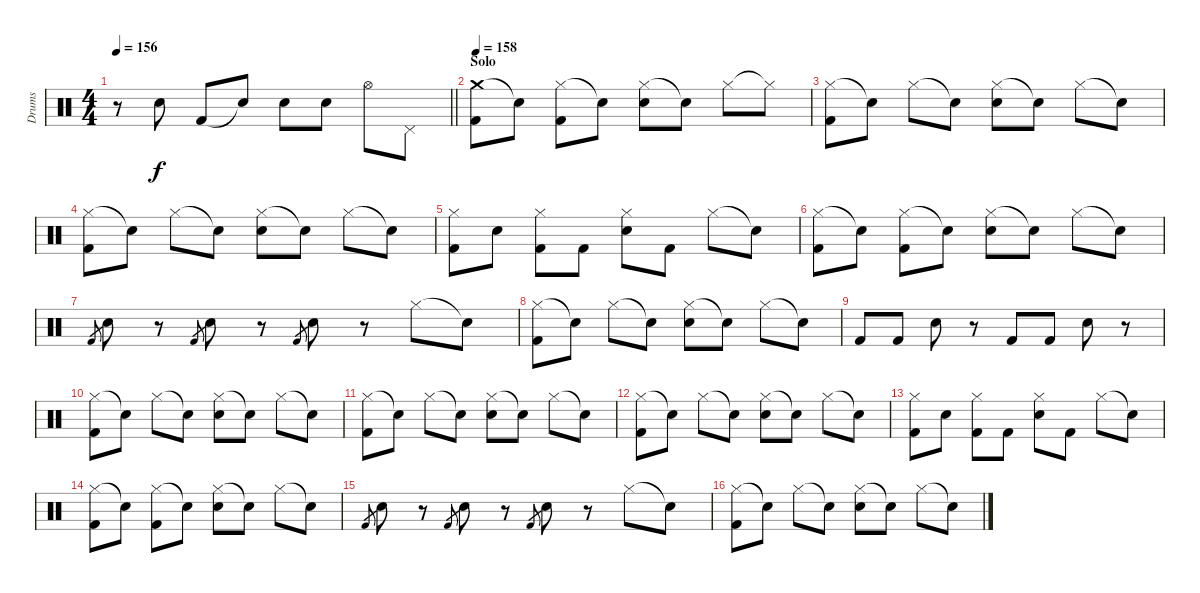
\track ("Drums" "Drums") {instrument percussion}
\staff {score}
\articulation defaults
\ts (4 4)
\tempo 156
\clef neutral
\barLineRight lightlight
\ks c
r.8{dy f} "Snare (hit) 2".8 "Kick (hit) 2".8 "Snare (hit)"{t}.8 "Snare (hit) 2".8 "Snare (hit) 2".8 "Hi-Hat (open)".8 "Pedal Hi-Hat (hit)".8 |
\section ("" "Solo")
\tempo 158
("Crash medium (hit)" "Kick (hit) 2").8 "Snare (hit)"{t}.8 ("Hi-Hat (closed)" "Kick (hit) 2").8 "Snare (hit)"{t}.8 ("Hi-Hat (closed)" "Snare (hit) 2").8 "Snare (hit)"{t}.8 "Hi-Hat (closed)".8 "Hi-Hat (closed)"{t}.8 |
("Hi-Hat (closed)" "Kick (hit) 2").8 "Snare (hit)"{t}.8 "Hi-Hat (closed)".8 "Snare (hit)"{t}.8 ("Hi-Hat (closed)" "Snare (hit) 2").8 "Snare (hit)"{t}.8 "Hi-Hat (closed)".8 "Snare (hit)"{t}.8 |
("Hi-Hat (closed)" "Kick (hit) 2").8 "Snare (hit)"{t}.8 "Hi-Hat (closed)".8 "Snare (hit)"{t}.8 ("Hi-Hat (closed)" "Snare (hit) 2").8 "Snare (hit)"{t}.8 "Hi-Hat (closed)".8 "Snare (hit)"{t}.8 |
("Hi-Hat (closed)" "Kick (hit) 2").8 "Snare (hit) 2".8 ("Hi-Hat (closed)" "Kick (hit) 2").8 "Kick (hit) 2".8 ("Hi-Hat (closed)" "Snare (hit) 2").8 "Kick (hit) 2".8 "Hi-Hat (closed)".8 "Snare (hit)"{t}.8 |
("Hi-Hat (closed)" "Kick (hit) 2").8 "Snare (hit)"{t}.8 ("Hi-Hat (closed)" "Kick (hit) 2").8 "Snare (hit)"{t}.8 ("Hi-Hat (closed)" "Snare (hit) 2").8 "Snare (hit)"{t}.8 "Hi-Hat (closed)".8 "Snare (hit)"{t}.8 |
"Kick (hit) 2".8{gr} "Snare (hit) 2".8 r.8 "Kick (hit) 2".8{gr} "Snare (hit) 2".8 r.8 "Kick (hit) 2".8{gr} "Snare (hit) 2".8 r.8 "Hi-Hat (closed)".8 "Snare (hit)"{t}.8 |
("Hi-Hat (closed)" "Kick (hit) 2").8 "Snare (hit)"{t}.8 "Hi-Hat (closed)".8 "Snare (hit)"{t}.8 ("Hi-Hat (closed)" "Snare (hit) 2").8 "Snare (hit)"{t}.8 "Hi-Hat (closed)".8 "Snare (hit)"{t}.8 |
"Kick (hit) 2".8 "Kick (hit) 2".8 "Snare (hit) 2".8 r.8 "Kick (hit) 2".8 "Kick (hit) 2".8 "Snare (hit) 2".8 r.8 |
("Hi-Hat (closed)" "Kick (hit) 2").8 "Snare (hit)"{t}.8 "Hi-Hat (closed)".8 "Snare (hit)"{t}.8 ("Hi-Hat (closed)" "Snare (hit) 2").8 "Snare (hit)"{t}.8 "Hi-Hat (closed)".8 "Snare (hit)"{t}.8 |
("Hi-Hat (closed)" "Kick (hit) 2").8 "Snare (hit)"{t}.8 "Hi-Hat (closed)".8 "Snare (hit)"{t}.8 ("Hi-Hat (closed)" "Snare (hit) 2").8 "Snare (hit)"{t}.8 "Hi-Hat (closed)".8 "Snare (hit)"{t}.8 |
("Hi-Hat (closed)" "Kick (hit) 2").8 "Snare (hit)"{t}.8 "Hi-Hat (closed)".8 "Snare (hit)"{t}.8 ("Hi-Hat (closed)" "Snare (hit) 2").8 "Snare (hit)"{t}.8 "Hi-Hat (closed)".8 "Snare (hit)"{t}.8 |
("Hi-Hat (closed)" "Kick (hit) 2").8 "Snare (hit) 2".8 ("Hi-Hat (closed)" "Kick (hit) 2").8 "Kick (hit) 2".8 ("Hi-Hat (closed)" "Snare (hit) 2").8 "Kick (hit) 2".8 "Hi-Hat (closed)".8 "Snare (hit)"{t}.8 |
("Hi-Hat (closed)" "Kick (hit) 2").8 "Snare (hit)"{t}.8 ("Hi-Hat (closed)" "Kick (hit) 2").8 "Snare (hit)"{t}.8 ("Hi-Hat (closed)" "Snare (hit) 2").8 "Snare (hit)"{t}.8 "Hi-Hat (closed)".8 "Snare (hit)"{t}.8 |
"Kick (hit) 2".8{gr} "Snare (hit) 2".8 r.8 "Kick (hit) 2".8{gr} "Snare (hit) 2".8 r.8 "Kick (hit) 2".8{gr} "Snare (hit) 2".8 r.8 "Hi-Hat (closed)".8 "Snare (hit)"{t}.8 |
("Hi-Hat (closed)" "Kick (hit) 2").8 "Snare (hit)"{t}.8 "Hi-Hat (closed)".8 "Snare (hit)"{t}.8 ("Hi-Hat (closed)" "Snare (hit) 2").8 "Snare (hit)"{t}.8 "Hi-Hat (closed)".8 "Snare (hit)"{t}.8
